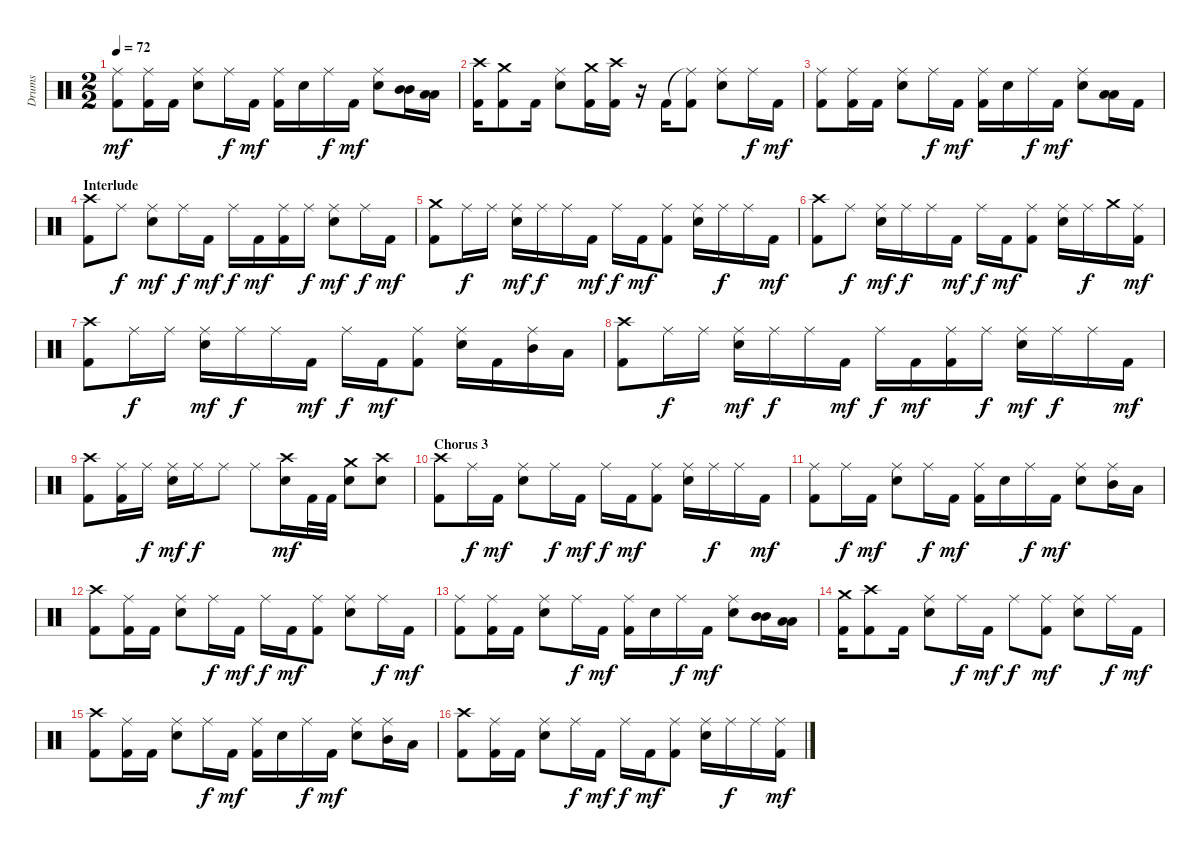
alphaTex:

\track ("Drums" "Drums") {instrument percussion}
\staff {score}
\articulation defaults
\ts (2 2)
\tempo 72
\clef neutral
\ks c
("Ride (middle)" "Kick (hit) 2").8{dy mf} ("Ride (middle)" "Kick (hit) 2").16 "Kick (hit) 2".16 ("Ride (middle)" "Electric Snare (hit)").8 "Ride (middle)".16{dy f} "Kick (hit) 2".16{dy mf} ("Ride (middle)" "Kick (hit) 2").16 "Electric Snare (hit)".16 "Ride (middle)".16{dy f} "Kick (hit) 2".16{dy mf} ("Ride (middle)" "Electric Snare (hit)").8 ("Mid Tom (hit)" "Mid Tom (hit)").16 ("Low Tom (hit)" "Low Tom (hit)").16 |
("Crash high (hit)" "Kick (hit) 2").16 ("Crash medium (hit)" "Kick (hit) 2").8 "Kick (hit) 2".16 ("Ride (middle)" "Electric Snare (hit)").8 ("Crash medium (hit)" "Kick (hit) 2").16 ("Crash high (hit)" "Kick (hit) 2").16 r.16 "Kick (hit) 2".16 ("Ride (middle)"{t} "Kick (hit) 2").8 ("Ride (middle)" "Electric Snare (hit)").8 "Ride (middle)".16{dy f} "Kick (hit) 2".16{dy mf} |
("Ride (middle)" "Kick (hit) 2").8 ("Ride (middle)" "Kick (hit) 2").16 "Kick (hit) 2".16 ("Ride (middle)" "Electric Snare (hit)").8 "Ride (middle)".16{dy f} "Kick (hit) 2".16{dy mf} ("Ride (middle)" "Kick (hit) 2").16 "Electric Snare (hit)".16 "Ride (middle)".16{dy f} "Kick (hit) 2".16{dy mf} ("Ride (middle)" "Electric Snare (hit)").8 ("Low Tom (hit)" "Low Tom (hit)").16 "Kick (hit) 2".16 |
\section ("" "Interlude")
("Crash high (hit)" "Kick (hit) 2").8 "Ride (middle)".8{dy f} ("Ride (middle)" "Electric Snare (hit)").8{dy mf} "Ride (middle)".16{dy f} "Kick (hit) 2".16{dy mf} "Ride (middle)".16{dy f} "Kick (hit) 2".16{dy mf} ("Ride (middle)" "Kick (hit) 2").16 "Ride (middle)".16{dy f} ("Ride (middle)" "Electric Snare (hit)").8{dy mf} "Ride (middle)".16{dy f} "Kick (hit) 2".16{dy mf} |
("Crash medium (hit)" "Kick (hit) 2").8 "Ride (middle)".16{dy f} "Ride (middle)".16 ("Ride (middle)" "Electric Snare (hit)").16{dy mf} "Ride (middle)".16{dy f} "Ride (middle)".16 "Kick (hit) 2".16{dy mf} "Ride (middle)".16{dy f} "Kick (hit) 2".16{dy mf} ("Ride (middle)" "Kick (hit) 2").8 ("Ride (middle)" "Electric Snare (hit)").16 "Ride (middle)".16{dy f} "Ride (middle)".16 "Kick (hit) 2".16{dy mf} |
("Crash high (hit)" "Kick (hit) 2").8 "Ride (middle)".8{dy f} ("Ride (middle)" "Electric Snare (hit)").16{dy mf} "Ride (middle)".16{dy f} "Ride (middle)".16 "Kick (hit) 2".16{dy mf} "Ride (middle)".16{dy f} "Kick (hit) 2".16{dy mf} ("Ride (middle)" "Kick (hit) 2").8 ("Ride (middle)" "Electric Snare (hit)").16 "Ride (middle)".16{dy f} "Crash medium (hit)".16 ("Ride (middle)" "Kick (hit) 2").16{dy mf} |
("Crash high (hit)" "Kick (hit) 2").8 "Ride (middle)".16{dy f} "Ride (middle)".16 ("Ride (middle)" "Electric Snare (hit)").16{dy mf} "Ride (middle)".16{dy f} "Ride (middle)".16 "Kick (hit) 2".16{dy mf} "Ride (middle)".16{dy f} "Kick (hit) 2".16{dy mf} ("Ride (middle)" "Kick (hit) 2").8 ("Ride (middle)" "Electric Snare (hit)").16 "Kick (hit) 2".16 ("Ride (middle)" "Mid Tom (hit)").16 "Low Tom (hit)".16 |
("Crash high (hit)" "Kick (hit) 2").8 "Ride (middle)".16{dy f} "Ride (middle)".16 ("Ride (middle)" "Electric Snare (hit)").16{dy mf} "Ride (middle)".16{dy f} "Ride (middle)".16 "Kick (hit) 2".16{dy mf} "Ride (middle)".16{dy f} "Kick (hit) 2".16{dy mf} ("Ride (middle)" "Kick (hit) 2").16 "Ride (middle)".16{dy f} ("Ride (middle)" "Electric Snare (hit)").16{dy mf} "Ride (middle)".16{dy f} "Ride (middle)".16 "Kick (hit) 2".16{dy mf} |
("Crash high (hit)" "Kick (hit) 2").8 ("Ride (middle)" "Kick (hit) 2").16 "Ride (middle)".16{dy f} ("Ride (middle)" "Electric Snare (hit)").16{dy mf} "Ride (middle)".16{dy f} "Ride (middle)".8 "Ride (middle)".8 ("Crash high (hit)" "Electric Snare (hit)").16{dy mf} "Kick (hit) 2".32 "Kick (hit) 2".32 ("Crash medium (hit)" "Electric Snare (hit)").8 ("Crash high (hit)" "Electric Snare (hit)").8 |
\section ("" "Chorus 3")
("Crash high (hit)" "Kick (hit) 2").8 "Ride (middle)".16{dy f} "Kick (hit) 2".16{dy mf} ("Ride (middle)" "Electric Snare (hit)").8 "Ride (middle)".16{dy f} "Kick (hit) 2".16{dy mf} "Ride (middle)".16{dy f} "Kick (hit) 2".16{dy mf} ("Ride (middle)" "Kick (hit) 2").8 ("Ride (middle)" "Electric Snare (hit)").16 "Ride (middle)".16{dy f} "Ride (middle)".16 "Kick (hit) 2".16{dy mf} |
("Ride (middle)" "Kick (hit) 2").8 "Ride (middle)".16{dy f} "Kick (hit) 2".16{dy mf} ("Ride (middle)" "Electric Snare (hit)").8 "Ride (middle)".16{dy f} "Kick (hit) 2".16{dy mf} ("Ride (middle)" "Kick (hit) 2").16 "Electric Snare (hit)".16 "Ride (middle)".16{dy f} "Kick (hit) 2".16{dy mf} ("Ride (middle)" "Electric Snare (hit)").8 ("Ride (middle)" "Mid Tom (hit)").16 "Low Tom (hit)".16 |
("Crash high (hit)" "Kick (hit) 2").8 ("Ride (middle)" "Kick (hit) 2").16 "Kick (hit) 2".16 ("Ride (middle)" "Electric Snare (hit)").8 "Ride (middle)".16{dy f} "Kick (hit) 2".16{dy mf} "Ride (middle)".16{dy f} "Kick (hit) 2".16{dy mf} ("Ride (middle)" "Kick (hit) 2").8 ("Ride (middle)" "Electric Snare (hit)").8 "Ride (middle)".16{dy f} "Kick (hit) 2".16{dy mf} |
("Ride (middle)" "Kick (hit) 2").8 ("Ride (middle)" "Kick (hit) 2").16 "Kick (hit) 2".16 ("Ride (middle)" "Electric Snare (hit)").8 "Ride (middle)".16{dy f} "Kick (hit) 2".16{dy mf} ("Ride (middle)" "Kick (hit) 2").16 "Electric Snare (hit)".16 "Ride (middle)".16{dy f} "Kick (hit) 2".16{dy mf} ("Ride (middle)" "Electric Snare (hit)").8 ("Mid Tom (hit)" "Mid Tom (hit)").16 ("Low Tom (hit)" "Low Tom (hit)").16 |
("Crash medium (hit)" "Kick (hit) 2").16 ("Crash high (hit)" "Kick (hit) 2").8 "Kick (hit) 2".16 ("Ride (middle)" "Electric Snare (hit)").8 "Ride (middle)".16{dy f} "Kick (hit) 2".16{dy mf} "Ride (middle)".8{dy f} ("Ride (middle)" "Kick (hit) 2").8{dy mf} ("Ride (middle)" "Electric Snare (hit)").8 "Ride (middle)".16{dy f} "Kick (hit) 2".16{dy mf} |
("Crash high (hit)" "Kick (hit) 2").8 ("Ride (middle)" "Kick (hit) 2").16 "Kick (hit) 2".16 ("Ride (middle)" "Electric Snare (hit)").8 "Ride (middle)".16{dy f} "Kick (hit) 2".16{dy mf} ("Ride (middle)" "Kick (hit) 2").16 "Electric Snare (hit)".16 "Ride (middle)".16{dy f} "Kick (hit) 2".16{dy mf} ("Ride (middle)" "Electric Snare (hit)").8 ("Ride (middle)" "Mid Tom (hit)").16 "Low Tom (hit)".16 |
("Crash high (hit)" "Kick (hit) 2").8 ("Ride (middle)" "Kick (hit) 2").16 "Kick (hit) 2".16 ("Ride (middle)" "Electric Snare (hit)").8 "Ride (middle)".16{dy f} "Kick (hit) 2".16{dy mf} "Ride (middle)".16{dy f} "Kick (hit) 2".16{dy mf} ("Ride (middle)" "Kick (hit) 2").8 ("Ride (middle)" "Electric Snare (hit)").16 "Ride (middle)".16{dy f} "Ride (middle)".16 ("Ride (middle)" "Kick (hit) 2").16{dy mf}
